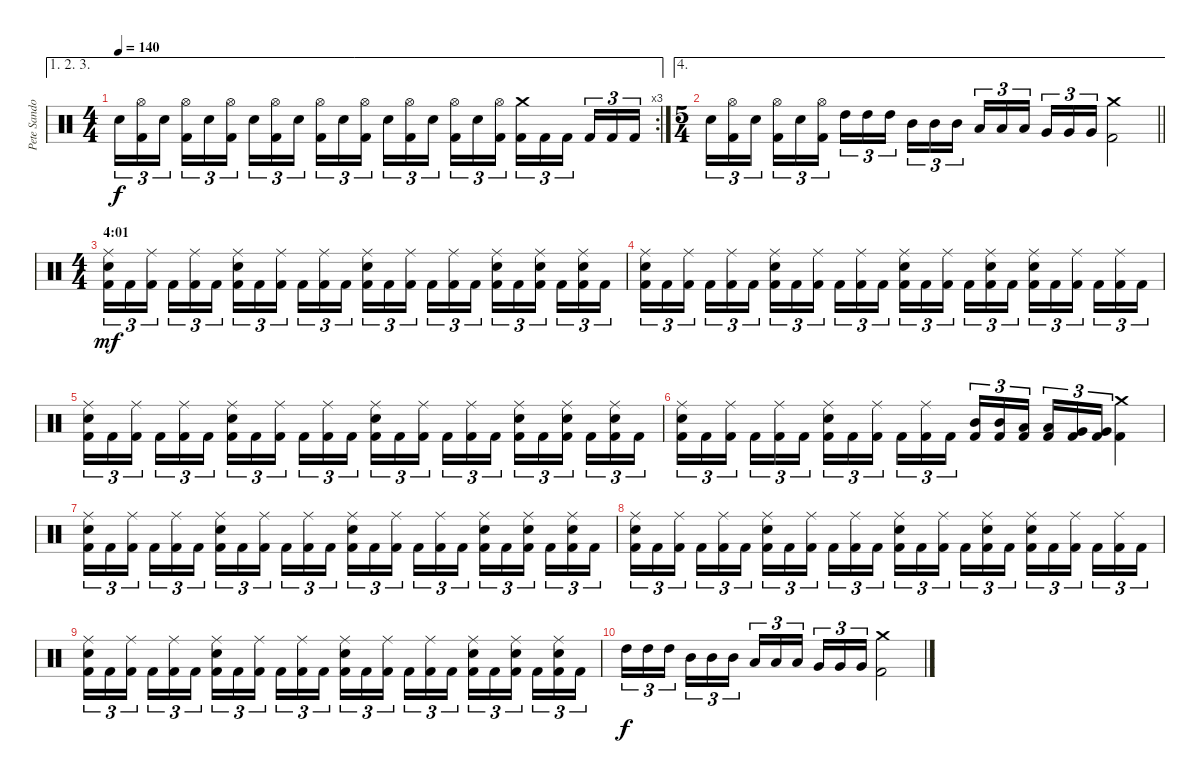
\track ("Pete Sandoval" "Pete Sando") {instrument percussion}
\staff {score}
\articulation defaults
\ae (1 2 3)
\rc 3
\ts (4 4)
\tempo 140
\clef neutral
\ks c "Electric Snare (hit)".16{tu (3 2) dy f}
("Hi-Hat (open)" "Kick (hit) 2").16{tu (3 2)} "Electric Snare (hit)".16{tu (3 2) beam splitsecondary} ("Hi-Hat (open)" "Kick (hit) 2").16{tu (3 2)} "Electric Snare (hit)".16{tu (3 2)} ("Hi-Hat (open)" "Kick (hit) 2").16{tu (3 2)} "Electric Snare (hit)".16{tu (3 2)} ("Hi-Hat (open)" "Kick (hit) 2").16{tu (3 2)} "Electric Snare (hit)".16{tu (3 2) beam splitsecondary} ("Hi-Hat (open)" "Kick (hit) 2").16{tu (3 2)} "Electric Snare (hit)".16{tu (3 2)} ("Hi-Hat (open)" "Kick (hit) 2").16{tu (3 2)} "Electric Snare (hit)".16{tu (3 2)} ("Hi-Hat (open)" "Kick (hit) 2").16{tu (3 2)} "Electric Snare (hit)".16{tu (3 2) beam splitsecondary} ("Hi-Hat (open)" "Kick (hit) 2").16{tu (3 2)} "Electric Snare (hit)".16{tu (3 2)} ("Hi-Hat (open)" "Kick (hit) 2").16{tu (3 2)} ("Crash medium (hit)" "Kick (hit) 2").16{tu (3 2)} "Kick (hit) 2".16{tu (3 2)} "Kick (hit) 2".16{tu (3 2) beam splitsecondary} "Kick (hit) 2".16{tu (3 2)} "Kick (hit) 2".16{tu (3 2)} "Kick (hit) 2".16{tu (3 2)} |
\ae 4
\ts (5 4)
\barLineRight lightlight "Electric Snare (hit)".16{tu (3 2)}
("Hi-Hat (open)" "Kick (hit) 2").16{tu (3 2)} "Electric Snare (hit)".16{tu (3 2) beam splitsecondary} ("Hi-Hat (open)" "Kick (hit) 2").16{tu (3 2)} "Electric Snare (hit)".16{tu (3 2)} ("Hi-Hat (open)" "Kick (hit) 2").16{tu (3 2)} "High Tom (hit)".16{tu (3 2)} "High Tom (hit)".16{tu (3 2)} "High Tom (hit)".16{tu (3 2) beam splitsecondary} "Mid Tom (hit)".16{tu (3 2)} "Mid Tom (hit)".16{tu (3 2)} "Mid Tom (hit)".16{tu (3 2)} "Low Tom (hit)".16{tu (3 2)} "Low Tom (hit)".16{tu (3 2)} "Low Tom (hit)".16{tu (3 2) beam splitsecondary} "Very Low Tom (hit)".16{tu (3 2)} "Very Low Tom (hit)".16{tu (3 2)} "Very Low Tom (hit)".16{tu (3 2)} ("Crash medium (hit)" "Kick (hit) 2").2 |
\ts (4 4)
\section ("" "4:01")
("Ride (middle)" "Electric Snare (hit)" "Kick (hit) 2").16{tu (3 2) dy mf} "Kick (hit) 2".16{tu (3 2)} ("Ride (middle)" "Kick (hit) 2").16{tu (3 2) beam splitsecondary} "Kick (hit) 2".16{tu (3 2)} ("Ride (middle)" "Kick (hit) 2").16{tu (3 2)} "Kick (hit) 2".16{tu (3 2)} ("Ride (middle)" "Electric Snare (hit)" "Kick (hit) 2").16{tu (3 2)} "Kick (hit) 2".16{tu (3 2)} ("Ride (middle)" "Kick (hit) 2").16{tu (3 2) beam splitsecondary} "Kick (hit) 2".16{tu (3 2)} ("Ride (middle)" "Kick (hit) 2").16{tu (3 2)} "Kick (hit) 2".16{tu (3 2)} ("Ride (middle)" "Electric Snare (hit)" "Kick (hit) 2").16{tu (3 2)} "Kick (hit) 2".16{tu (3 2)} ("Ride (middle)" "Kick (hit) 2").16{tu (3 2) beam splitsecondary} "Kick (hit) 2".16{tu (3 2)} ("Ride (middle)" "Kick (hit) 2").16{tu (3 2)} "Kick (hit) 2".16{tu (3 2)} ("Ride (middle)" "Electric Snare (hit)" "Kick (hit) 2").16{tu (3 2)} "Kick (hit) 2".16{tu (3 2)} ("Ride (middle)" "Electric Snare (hit)" "Kick (hit) 2").16{tu (3 2) beam splitsecondary} "Kick (hit) 2".16{tu (3 2)} ("Ride (middle)" "Electric Snare (hit)" "Kick (hit) 2").16{tu (3 2)} "Kick (hit) 2".16{tu (3 2)} |
("Ride (middle)" "Electric Snare (hit)" "Kick (hit) 2").16{tu (3 2)} "Kick (hit) 2".16{tu (3 2)} ("Ride (middle)" "Kick (hit) 2").16{tu (3 2) beam splitsecondary} "Kick (hit) 2".16{tu (3 2)} ("Ride (middle)" "Kick (hit) 2").16{tu (3 2)} "Kick (hit) 2".16{tu (3 2)} ("Ride (middle)" "Electric Snare (hit)" "Kick (hit) 2").16{tu (3 2)} "Kick (hit) 2".16{tu (3 2)} ("Ride (middle)" "Kick (hit) 2").16{tu (3 2) beam splitsecondary} "Kick (hit) 2".16{tu (3 2)} ("Ride (middle)" "Kick (hit) 2").16{tu (3 2)} "Kick (hit) 2".16{tu (3 2)} ("Ride (middle)" "Electric Snare (hit)" "Kick (hit) 2").16{tu (3 2)} "Kick (hit) 2".16{tu (3 2)} ("Ride (middle)" "Kick (hit) 2").16{tu (3 2) beam splitsecondary} "Kick (hit) 2".16{tu (3 2)} ("Ride (middle)" "Electric Snare (hit)" "Kick (hit) 2").16{tu (3 2)} "Kick (hit) 2".16{tu (3 2)} ("Ride (middle)" "Electric Snare (hit)" "Kick (hit) 2").16{tu (3 2)} "Kick (hit) 2".16{tu (3 2)} ("Ride (middle)" "Kick (hit) 2").16{tu (3 2) beam splitsecondary} "Kick (hit) 2".16{tu (3 2)} ("Ride (middle)" "Kick (hit) 2").16{tu (3 2)} "Kick (hit) 2".16{tu (3 2)} |
("Ride (middle)" "Electric Snare (hit)" "Kick (hit) 2").16{tu (3 2)} "Kick (hit) 2".16{tu (3 2)} ("Ride (middle)" "Kick (hit) 2").16{tu (3 2) beam splitsecondary} "Kick (hit) 2".16{tu (3 2)} ("Ride (middle)" "Kick (hit) 2").16{tu (3 2)} "Kick (hit) 2".16{tu (3 2)} ("Ride (middle)" "Electric Snare (hit)" "Kick (hit) 2").16{tu (3 2)} "Kick (hit) 2".16{tu (3 2)} ("Ride (middle)" "Kick (hit) 2").16{tu (3 2) beam splitsecondary} "Kick (hit) 2".16{tu (3 2)} ("Ride (middle)" "Kick (hit) 2").16{tu (3 2)} "Kick (hit) 2".16{tu (3 2)} ("Ride (middle)" "Electric Snare (hit)" "Kick (hit) 2").16{tu (3 2)} "Kick (hit) 2".16{tu (3 2)} ("Ride (middle)" "Kick (hit) 2").16{tu (3 2) beam splitsecondary} "Kick (hit) 2".16{tu (3 2)} ("Ride (middle)" "Kick (hit) 2").16{tu (3 2)} "Kick (hit) 2".16{tu (3 2)} ("Ride (middle)" "Electric Snare (hit)" "Kick (hit) 2").16{tu (3 2)} "Kick (hit) 2".16{tu (3 2)} ("Ride (middle)" "Electric Snare (hit)" "Kick (hit) 2").16{tu (3 2) beam splitsecondary} "Kick (hit) 2".16{tu (3 2)} ("Ride (middle)" "Electric Snare (hit)" "Kick (hit) 2").16{tu (3 2)} "Kick (hit) 2".16{tu (3 2)} |
("Ride (middle)" "Electric Snare (hit)" "Kick (hit) 2").16{tu (3 2)} "Kick (hit) 2".16{tu (3 2)} ("Ride (middle)" "Kick (hit) 2").16{tu (3 2) beam splitsecondary} "Kick (hit) 2".16{tu (3 2)} ("Ride (middle)" "Kick (hit) 2").16{tu (3 2)} "Kick (hit) 2".16{tu (3 2)} ("Ride (middle)" "Electric Snare (hit)" "Kick (hit) 2").16{tu (3 2)} "Kick (hit) 2".16{tu (3 2)} ("Ride (middle)" "Kick (hit) 2").16{tu (3 2) beam splitsecondary} "Kick (hit) 2".16{tu (3 2)} ("Ride (middle)" "Kick (hit) 2").16{tu (3 2)} "Kick (hit) 2".16{tu (3 2)} ("Mid Tom (hit)" "Kick (hit) 2").16{tu (3 2)} ("Mid Tom (hit)" "Kick (hit) 2").16{tu (3 2)} ("Low Tom (hit)" "Kick (hit) 2").16{tu (3 2) beam splitsecondary} ("Low Tom (hit)" "Kick (hit) 2").16{tu (3 2)} ("Very Low Tom (hit)" "Kick (hit) 2").16{tu (3 2)} ("Very Low Tom (hit)" "Kick (hit) 2").16{tu (3 2)} ("Crash medium (hit)" "Kick (hit) 2").4 |
("Ride (middle)" "Electric Snare (hit)" "Kick (hit) 2").16{tu (3 2)} "Kick (hit) 2".16{tu (3 2)} ("Ride (middle)" "Kick (hit) 2").16{tu (3 2) beam splitsecondary} "Kick (hit) 2".16{tu (3 2)} ("Ride (middle)" "Kick (hit) 2").16{tu (3 2)} "Kick (hit) 2".16{tu (3 2)} ("Ride (middle)" "Electric Snare (hit)" "Kick (hit) 2").16{tu (3 2)} "Kick (hit) 2".16{tu (3 2)} ("Ride (middle)" "Kick (hit) 2").16{tu (3 2) beam splitsecondary} "Kick (hit) 2".16{tu (3 2)} ("Ride (middle)" "Kick (hit) 2").16{tu (3 2)} "Kick (hit) 2".16{tu (3 2)} ("Ride (middle)" "Electric Snare (hit)" "Kick (hit) 2").16{tu (3 2)} "Kick (hit) 2".16{tu (3 2)} ("Ride (middle)" "Kick (hit) 2").16{tu (3 2) beam splitsecondary} "Kick (hit) 2".16{tu (3 2)} ("Ride (middle)" "Kick (hit) 2").16{tu (3 2)} "Kick (hit) 2".16{tu (3 2)} ("Ride (middle)" "Electric Snare (hit)" "Kick (hit) 2").16{tu (3 2)} "Kick (hit) 2".16{tu (3 2)} ("Ride (middle)" "Electric Snare (hit)" "Kick (hit) 2").16{tu (3 2) beam splitsecondary} "Kick (hit) 2".16{tu (3 2)} ("Ride (middle)" "Electric Snare (hit)" "Kick (hit) 2").16{tu (3 2)} "Kick (hit) 2".16{tu (3 2)} |
("Ride (middle)" "Electric Snare (hit)" "Kick (hit) 2").16{tu (3 2)} "Kick (hit) 2".16{tu (3 2)} ("Ride (middle)" "Kick (hit) 2").16{tu (3 2) beam splitsecondary} "Kick (hit) 2".16{tu (3 2)} ("Ride (middle)" "Kick (hit) 2").16{tu (3 2)} "Kick (hit) 2".16{tu (3 2)} ("Ride (middle)" "Electric Snare (hit)" "Kick (hit) 2").16{tu (3 2)} "Kick (hit) 2".16{tu (3 2)} ("Ride (middle)" "Kick (hit) 2").16{tu (3 2) beam splitsecondary} "Kick (hit) 2".16{tu (3 2)} ("Ride (middle)" "Kick (hit) 2").16{tu (3 2)} "Kick (hit) 2".16{tu (3 2)} ("Ride (middle)" "Electric Snare (hit)" "Kick (hit) 2").16{tu (3 2)} "Kick (hit) 2".16{tu (3 2)} ("Ride (middle)" "Kick (hit) 2").16{tu (3 2) beam splitsecondary} "Kick (hit) 2".16{tu (3 2)} ("Ride (middle)" "Electric Snare (hit)" "Kick (hit) 2").16{tu (3 2)} "Kick (hit) 2".16{tu (3 2)} ("Ride (middle)" "Electric Snare (hit)" "Kick (hit) 2").16{tu (3 2)} "Kick (hit) 2".16{tu (3 2)} ("Ride (middle)" "Kick (hit) 2").16{tu (3 2) beam splitsecondary} "Kick (hit) 2".16{tu (3 2)} ("Ride (middle)" "Kick (hit) 2").16{tu (3 2)} "Kick (hit) 2".16{tu (3 2)} |
("Ride (middle)" "Electric Snare (hit)" "Kick (hit) 2").16{tu (3 2)} "Kick (hit) 2".16{tu (3 2)} ("Ride (middle)" "Kick (hit) 2").16{tu (3 2) beam splitsecondary} "Kick (hit) 2".16{tu (3 2)} ("Ride (middle)" "Kick (hit) 2").16{tu (3 2)} "Kick (hit) 2".16{tu (3 2)} ("Ride (middle)" "Electric Snare (hit)" "Kick (hit) 2").16{tu (3 2)} "Kick (hit) 2".16{tu (3 2)} ("Ride (middle)" "Kick (hit) 2").16{tu (3 2) beam splitsecondary} "Kick (hit) 2".16{tu (3 2)} ("Ride (middle)" "Kick (hit) 2").16{tu (3 2)} "Kick (hit) 2".16{tu (3 2)} ("Ride (middle)" "Electric Snare (hit)" "Kick (hit) 2").16{tu (3 2)} "Kick (hit) 2".16{tu (3 2)} ("Ride (middle)" "Kick (hit) 2").16{tu (3 2) beam splitsecondary} "Kick (hit) 2".16{tu (3 2)} ("Ride (middle)" "Kick (hit) 2").16{tu (3 2)} "Kick (hit) 2".16{tu (3 2)} ("Ride (middle)" "Electric Snare (hit)" "Kick (hit) 2").16{tu (3 2)} "Kick (hit) 2".16{tu (3 2)} ("Ride (middle)" "Electric Snare (hit)" "Kick (hit) 2").16{tu (3 2) beam splitsecondary} "Kick (hit) 2".16{tu (3 2)} ("Ride (middle)" "Electric Snare (hit)" "Kick (hit) 2").16{tu (3 2)} "Kick (hit) 2".16{tu (3 2)} |
"High Tom (hit)".16{tu (3 2) dy f} "High Tom (hit)".16{tu (3 2)} "High Tom (hit)".16{tu (3 2) beam splitsecondary} "Mid Tom (hit)".16{tu (3 2)} "Mid Tom (hit)".16{tu (3 2)} "Mid Tom (hit)".16{tu (3 2)} "Low Tom (hit)".16{tu (3 2)} "Low Tom (hit)".16{tu (3 2)} "Low Tom (hit)".16{tu (3 2) beam splitsecondary} "Very Low Tom (hit)".16{tu (3 2)} "Very Low Tom (hit)".16{tu (3 2)} "Very Low Tom (hit)".16{tu (3 2)} ("Crash medium (hit)" "Kick (hit) 2").2
